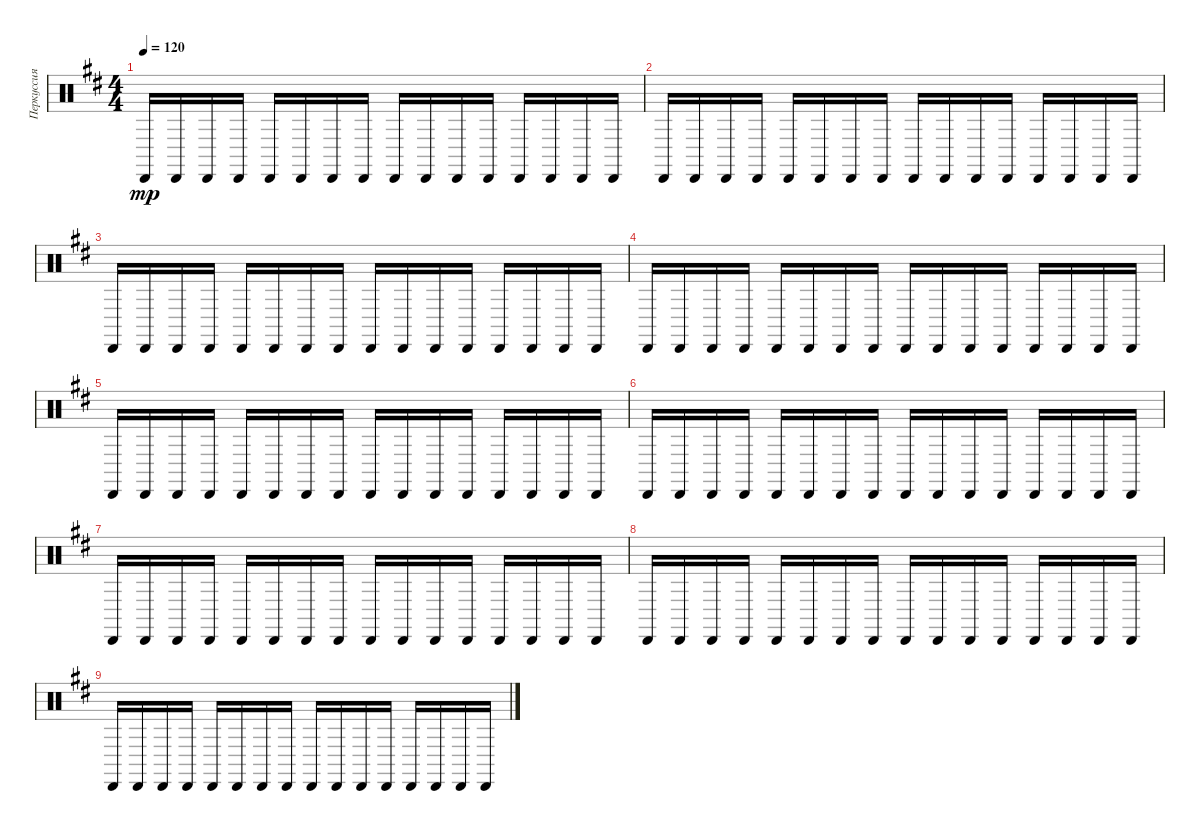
\track ("Перкуссия" "Перкуссия") {instrument percussion}
\staff {score}
\articulation defaults
\ts (4 4)
\tempo 120
\clef neutral
\ks bminor "Cabasa (hit)".16{dy mp} "Cabasa (hit)".16 "Cabasa (hit)".16 "Cabasa (hit)".16 "Cabasa (hit)".16 "Cabasa (hit)".16 "Cabasa (hit)".16 "Cabasa (hit)".16 "Cabasa (hit)".16 "Cabasa (hit)".16 "Cabasa (hit)".16 "Cabasa (hit)".16 "Cabasa (hit)".16 "Cabasa (hit)".16 "Cabasa (hit)".16 "Cabasa (hit)".16
|
"Cabasa (hit)".16 "Cabasa (hit)".16 "Cabasa (hit)".16 "Cabasa (hit)".16 "Cabasa (hit)".16 "Cabasa (hit)".16 "Cabasa (hit)".16 "Cabasa (hit)".16 "Cabasa (hit)".16 "Cabasa (hit)".16 "Cabasa (hit)".16 "Cabasa (hit)".16 "Cabasa (hit)".16 "Cabasa (hit)".16 "Cabasa (hit)".16 "Cabasa (hit)".16 |
"Cabasa (hit)".16 "Cabasa (hit)".16 "Cabasa (hit)".16 "Cabasa (hit)".16 "Cabasa (hit)".16 "Cabasa (hit)".16 "Cabasa (hit)".16 "Cabasa (hit)".16 "Cabasa (hit)".16 "Cabasa (hit)".16 "Cabasa (hit)".16 "Cabasa (hit)".16 "Cabasa (hit)".16 "Cabasa (hit)".16 "Cabasa (hit)".16 "Cabasa (hit)".16 |
"Cabasa (hit)".16 "Cabasa (hit)".16 "Cabasa (hit)".16 "Cabasa (hit)".16 "Cabasa (hit)".16 "Cabasa (hit)".16 "Cabasa (hit)".16 "Cabasa (hit)".16 "Cabasa (hit)".16 "Cabasa (hit)".16 "Cabasa (hit)".16 "Cabasa (hit)".16 "Cabasa (hit)".16 "Cabasa (hit)".16 "Cabasa (hit)".16 "Cabasa (hit)".16 |
"Cabasa (hit)".16 "Cabasa (hit)".16 "Cabasa (hit)".16 "Cabasa (hit)".16 "Cabasa (hit)".16 "Cabasa (hit)".16 "Cabasa (hit)".16 "Cabasa (hit)".16 "Cabasa (hit)".16 "Cabasa (hit)".16 "Cabasa (hit)".16 "Cabasa (hit)".16 "Cabasa (hit)".16 "Cabasa (hit)".16 "Cabasa (hit)".16 "Cabasa (hit)".16 |
"Cabasa (hit)".16 "Cabasa (hit)".16 "Cabasa (hit)".16 "Cabasa (hit)".16 "Cabasa (hit)".16 "Cabasa (hit)".16 "Cabasa (hit)".16 "Cabasa (hit)".16 "Cabasa (hit)".16 "Cabasa (hit)".16 "Cabasa (hit)".16 "Cabasa (hit)".16 "Cabasa (hit)".16 "Cabasa (hit)".16 "Cabasa (hit)".16 "Cabasa (hit)".16 |
"Cabasa (hit)".16 "Cabasa (hit)".16 "Cabasa (hit)".16 "Cabasa (hit)".16 "Cabasa (hit)".16 "Cabasa (hit)".16 "Cabasa (hit)".16 "Cabasa (hit)".16 "Cabasa (hit)".16 "Cabasa (hit)".16 "Cabasa (hit)".16 "Cabasa (hit)".16 "Cabasa (hit)".16 "Cabasa (hit)".16 "Cabasa (hit)".16 "Cabasa (hit)".16 |
"Cabasa (hit)".16 "Cabasa (hit)".16 "Cabasa (hit)".16 "Cabasa (hit)".16 "Cabasa (hit)".16 "Cabasa (hit)".16 "Cabasa (hit)".16 "Cabasa (hit)".16 "Cabasa (hit)".16 "Cabasa (hit)".16 "Cabasa (hit)".16 "Cabasa (hit)".16 "Cabasa (hit)".16 "Cabasa (hit)".16 "Cabasa (hit)".16 "Cabasa (hit)".16 |
"Cabasa (hit)".16 "Cabasa (hit)".16 "Cabasa (hit)".16 "Cabasa (hit)".16 "Cabasa (hit)".16 "Cabasa (hit)".16 "Cabasa (hit)".16 "Cabasa (hit)".16 "Cabasa (hit)".16 "Cabasa (hit)".16 "Cabasa (hit)".16 "Cabasa (hit)".16 "Cabasa (hit)".16 "Cabasa (hit)".16 "Cabasa (hit)".16 "Cabasa (hit)".16
